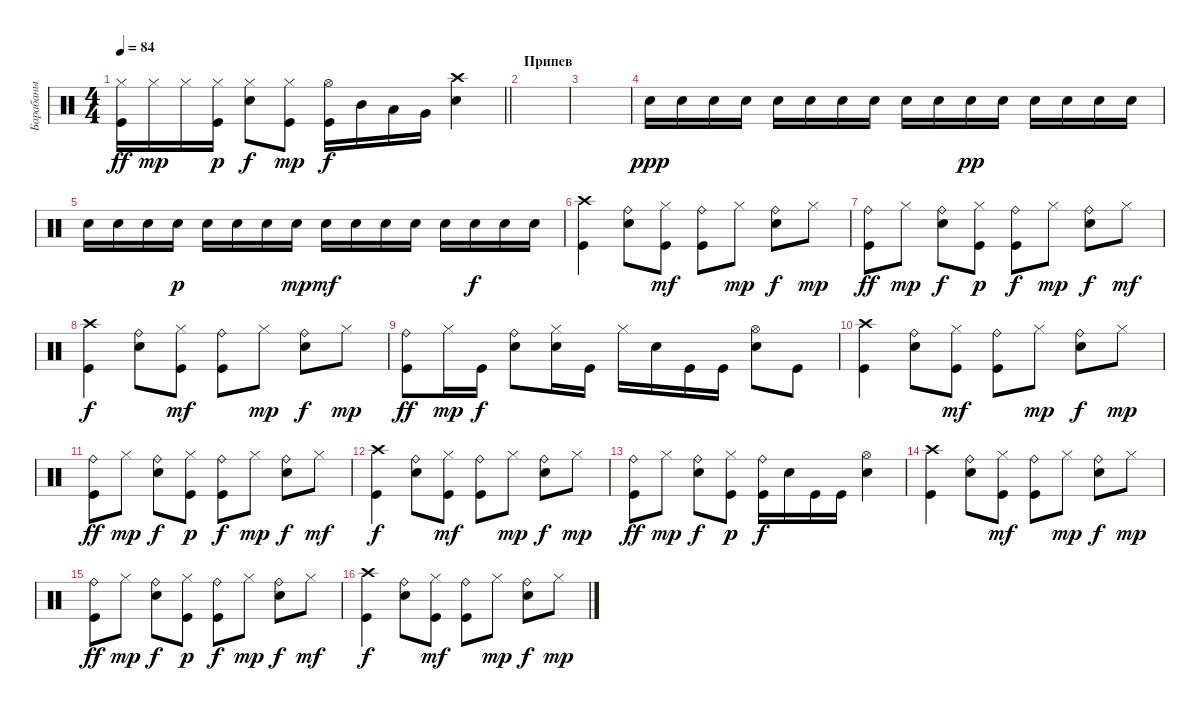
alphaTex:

\track ("Барабаны" "Барабаны") {instrument percussion}
\staff {score}
\articulation defaults
\ts (4 4)
\tempo 84
\clef neutral
\barLineRight lightlight
\ks c
("Hi-Hat (closed)" "Kick (hit)").16{dy ff} "Hi-Hat (closed)".16{dy mp} "Hi-Hat (closed)".16 ("Hi-Hat (closed)" "Kick (hit)").16{dy p} ("Hi-Hat (closed)" "Electric Snare (hit)").8{dy f} ("Hi-Hat (closed)" "Kick (hit)").8{dy mp} ("Hi-Hat (open)" "Kick (hit)").16{dy f} "Mid Tom (hit)".16 "Low Tom (hit)".16 "Very Low Tom (hit)".16 ("Crash high (hit)" "Electric Snare (hit)").4 |
\section ("" "Припев")
|
|
"Electric Snare (hit)".16{dy ppp volume 5} "Electric Snare (hit)".16{volume 6} "Electric Snare (hit)".16{volume 7} "Electric Snare (hit)".16{volume 8} "Electric Snare (hit)".16{volume 9} "Electric Snare (hit)".16{volume 10} "Electric Snare (hit)".16{volume 11} "Electric Snare (hit)".16{volume 13} "Electric Snare (hit)".16 "Electric Snare (hit)".16 "Electric Snare (hit)".16{dy pp} "Electric Snare (hit)".16 "Electric Snare (hit)".16 "Electric Snare (hit)".16 "Electric Snare (hit)".16 "Electric Snare (hit)".16 |
"Electric Snare (hit)".16{volume 5} "Electric Snare (hit)".16{volume 6} "Electric Snare (hit)".16{volume 7} "Electric Snare (hit)".16{dy p volume 8} "Electric Snare (hit)".16{volume 9} "Electric Snare (hit)".16{volume 10} "Electric Snare (hit)".16{volume 11} "Electric Snare (hit)".16{dy mp volume 13} "Electric Snare (hit)".16{dy mf} "Electric Snare (hit)".16 "Electric Snare (hit)".16 "Electric Snare (hit)".16 "Electric Snare (hit)".16 "Electric Snare (hit)".16{dy f} "Electric Snare (hit)".16 "Electric Snare (hit)".16 |
("Crash high (hit)" "Kick (hit)").4 ("Ride (bell)" "Electric Snare (hit)").8 ("Hi-Hat (closed)" "Kick (hit)").8{dy mf} ("Ride (bell)" "Kick (hit)").8 "Hi-Hat (closed)".8{dy mp} ("Ride (bell)" "Electric Snare (hit)").8{dy f} "Hi-Hat (closed)".8{dy mp} |
("Ride (bell)" "Kick (hit)").8{dy ff} "Hi-Hat (closed)".8{dy mp} ("Ride (bell)" "Electric Snare (hit)").8{dy f} ("Hi-Hat (closed)" "Kick (hit)").8{dy p} ("Ride (bell)" "Kick (hit)").8{dy f} "Hi-Hat (closed)".8{dy mp} ("Ride (bell)" "Electric Snare (hit)").8{dy f} "Hi-Hat (closed)".8{dy mf} |
("Crash high (hit)" "Kick (hit)").4{dy f} ("Ride (bell)" "Electric Snare (hit)").8 ("Hi-Hat (closed)" "Kick (hit)").8{dy mf} ("Ride (bell)" "Kick (hit)").8 "Hi-Hat (closed)".8{dy mp} ("Ride (bell)" "Electric Snare (hit)").8{dy f} "Hi-Hat (closed)".8{dy mp} |
("Ride (bell)" "Kick (hit)").8{dy ff} "Hi-Hat (closed)".16{dy mp} "Kick (hit)".16{dy f} ("Ride (bell)" "Electric Snare (hit)").8 ("Hi-Hat (closed)" "Electric Snare (hit)").16 "Kick (hit)".16 "Hi-Hat (closed)".16 "Electric Snare (hit)".16 "Kick (hit)".16 "Kick (hit)".16 ("Hi-Hat (open)" "Electric Snare (hit)").8 "Kick (hit)".8 |
("Crash high (hit)" "Kick (hit)").4 ("Ride (bell)" "Electric Snare (hit)").8 ("Hi-Hat (closed)" "Kick (hit)").8{dy mf} ("Ride (bell)" "Kick (hit)").8 "Hi-Hat (closed)".8{dy mp} ("Ride (bell)" "Electric Snare (hit)").8{dy f} "Hi-Hat (closed)".8{dy mp} |
("Ride (bell)" "Kick (hit)").8{dy ff} "Hi-Hat (closed)".8{dy mp} ("Ride (bell)" "Electric Snare (hit)").8{dy f} ("Hi-Hat (closed)" "Kick (hit)").8{dy p} ("Ride (bell)" "Kick (hit)").8{dy f} "Hi-Hat (closed)".8{dy mp} ("Ride (bell)" "Electric Snare (hit)").8{dy f} "Hi-Hat (closed)".8{dy mf} |
("Crash high (hit)" "Kick (hit)").4{dy f} ("Ride (bell)" "Electric Snare (hit)").8 ("Hi-Hat (closed)" "Kick (hit)").8{dy mf} ("Ride (bell)" "Kick (hit)").8 "Hi-Hat (closed)".8{dy mp} ("Ride (bell)" "Electric Snare (hit)").8{dy f} "Hi-Hat (closed)".8{dy mp} |
("Ride (bell)" "Kick (hit)").8{dy ff} "Hi-Hat (closed)".8{dy mp} ("Ride (bell)" "Electric Snare (hit)").8{dy f} ("Hi-Hat (closed)" "Kick (hit)").8{dy p} ("Ride (bell)" "Kick (hit)").16{dy f} "Electric Snare (hit)".16 "Kick (hit)".16 "Kick (hit)".16 ("Hi-Hat (open)" "Electric Snare (hit)").4 |
("Crash high (hit)" "Kick (hit)").4 ("Ride (bell)" "Electric Snare (hit)").8 ("Hi-Hat (closed)" "Kick (hit)").8{dy mf} ("Ride (bell)" "Kick (hit)").8 "Hi-Hat (closed)".8{dy mp} ("Ride (bell)" "Electric Snare (hit)").8{dy f} "Hi-Hat (closed)".8{dy mp} |
("Ride (bell)" "Kick (hit)").8{dy ff} "Hi-Hat (closed)".8{dy mp} ("Ride (bell)" "Electric Snare (hit)").8{dy f} ("Hi-Hat (closed)" "Kick (hit)").8{dy p} ("Ride (bell)" "Kick (hit)").8{dy f} "Hi-Hat (closed)".8{dy mp} ("Ride (bell)" "Electric Snare (hit)").8{dy f} "Hi-Hat (closed)".8{dy mf} |
("Crash high (hit)" "Kick (hit)").4{dy f} ("Ride (bell)" "Electric Snare (hit)").8 ("Hi-Hat (closed)" "Kick (hit)").8{dy mf} ("Ride (bell)" "Kick (hit)").8 "Hi-Hat (closed)".8{dy mp} ("Ride (bell)" "Electric Snare (hit)").8{dy f} "Hi-Hat (closed)".8{dy mp}
